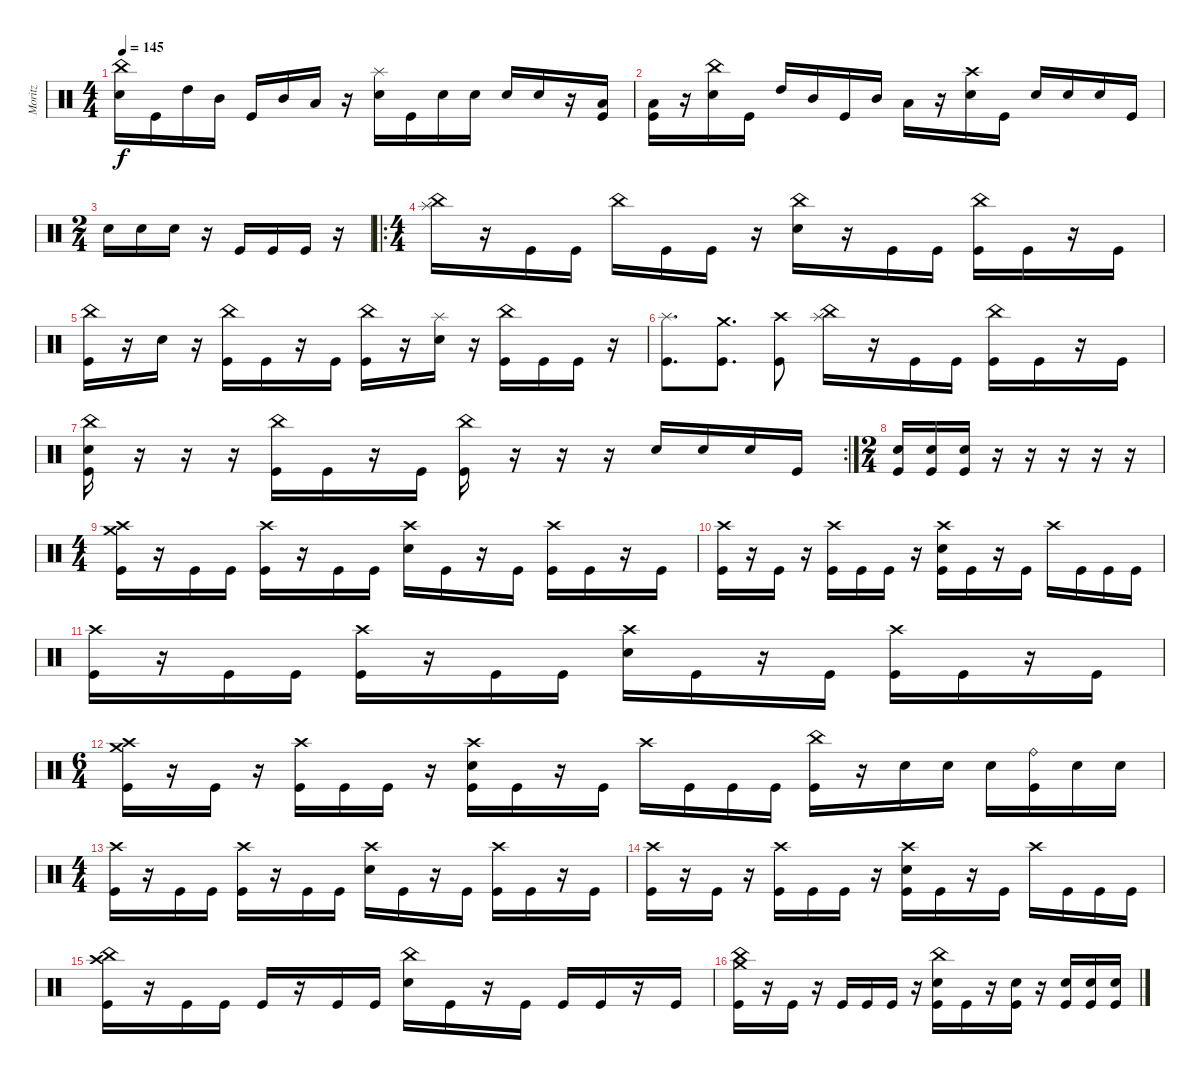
\track ("Moritz" "Moritz") {instrument percussion}
\staff {score}
\articulation defaults
\ts (4 4)
\tempo 145
\clef neutral
\ks c
("China (hit)" "Snare (hit) 2").16{dy f} "Kick (hit)".16 "High Tom (hit)".16 "Mid Tom (hit)".16 "Kick (hit)".16 "Mid Tom (hit)".16 "Low Floor Tom (hit)".16 r.16 ("Splash (hit)" "Snare (hit) 2").16 "Kick (hit)".16 "Snare (hit) 2".16 "Snare (hit) 2".16 "Snare (hit) 2".16 "Snare (hit) 2".16 r.16 ("Low Floor Tom (hit)" "Kick (hit)").16 |
("Low Floor Tom (hit)" "Kick (hit)").16 r.16 ("China (hit)" "Snare (hit) 2").16 "Kick (hit)".16 "High Tom (hit)".16 "Mid Tom (hit)".16 "Kick (hit)".16 "Mid Tom (hit)".16 "Low Floor Tom (hit)".16 r.16 ("Crash high (hit)" "Snare (hit) 2").16 "Kick (hit)".16 "Snare (hit) 2".16 "Snare (hit) 2".16 "Snare (hit) 2".16 "Kick (hit)".16 |
\ts (2 4)
"Snare (hit) 2".16 "Snare (hit) 2".16 "Snare (hit) 2".16 r.16 "Kick (hit)".16 "Kick (hit)".16 "Kick (hit)".16 r.16 |
\ro
\ts (4 4)
("Splash (hit)" "China (hit)").16 r.16 "Kick (hit)".16 "Kick (hit)".16 "China (hit)".16 "Kick (hit)".16 "Kick (hit)".16 r.16 ("China (hit)" "Snare (hit) 2").16 r.16 "Kick (hit)".16 "Kick (hit)".16 ("China (hit)" "Kick (hit)").16 "Kick (hit)".16 r.16 "Kick (hit)".16 |
("China (hit)" "Kick (hit)").16 r.16 "Snare (hit) 2".16 r.16 ("China (hit)" "Kick (hit)").16 "Kick (hit)".16 r.16 "Kick (hit)".16 ("China (hit)" "Kick (hit)").16 r.16 ("Splash (hit)" "Snare (hit) 2").16 r.16 ("China (hit)" "Kick (hit)").16 "Kick (hit)".16 "Kick (hit)".16 r.16 |
("Splash (hit)" "Kick (hit)").8{d} ("Crash medium (hit)" "Kick (hit)").8{d} ("Crash high (hit)" "Kick (hit)").8 ("Splash (hit)" "China (hit)").16 r.16 "Kick (hit)".16 "Kick (hit)".16 ("China (hit)" "Kick (hit)").16 "Kick (hit)".16 r.16 "Kick (hit)".16 |
\rc 2
("China (hit)" "Snare (hit) 2" "Kick (hit)").16 r.16 r.16 r.16 ("China (hit)" "Kick (hit)").16 "Kick (hit)".16 r.16 "Kick (hit)".16 ("China (hit)" "Kick (hit)").16 r.16 r.16 r.16 "Snare (hit) 2".16 "Snare (hit) 2".16 "Snare (hit) 2".16 "Kick (hit)".16 |
\ts (2 4)
("Snare (hit) 2" "Kick (hit)").16 ("Snare (hit) 2" "Kick (hit)").16 ("Snare (hit) 2" "Kick (hit)").16 r.16 r.16 r.16 r.16 r.16 |
\ts (4 4)
("Crash medium (hit)" "Crash high (hit)" "Kick (hit)").16 r.16 "Kick (hit)".16 "Kick (hit)".16 ("Crash high (hit)" "Kick (hit)").16 r.16 "Kick (hit)".16 "Kick (hit)".16 ("Crash high (hit)" "Snare (hit) 2").16 "Kick (hit)".16 r.16 "Kick (hit)".16 ("Crash high (hit)" "Kick (hit)").16 "Kick (hit)".16 r.16 "Kick (hit)".16 |
("Crash high (hit)" "Kick (hit)").16 r.16 "Kick (hit)".16 r.16 ("Crash high (hit)" "Kick (hit)").16 "Kick (hit)".16 "Kick (hit)".16 r.16 ("Crash high (hit)" "Snare (hit) 2" "Kick (hit)").16 "Kick (hit)".16 r.16 "Kick (hit)".16 "Crash high (hit)".16 "Kick (hit)".16 "Kick (hit)".16 "Kick (hit)".16 |
("Crash high (hit)" "Kick (hit)").16 r.16 "Kick (hit)".16 "Kick (hit)".16 ("Crash high (hit)" "Kick (hit)").16 r.16 "Kick (hit)".16 "Kick (hit)".16 ("Crash high (hit)" "Snare (hit) 2").16 "Kick (hit)".16 r.16 "Kick (hit)".16 ("Crash high (hit)" "Kick (hit)").16 "Kick (hit)".16 r.16 "Kick (hit)".16 |
\ts (6 4)
("Crash medium (hit)" "Crash high (hit)" "Kick (hit)").16 r.16 "Kick (hit)".16 r.16 ("Crash high (hit)" "Kick (hit)").16 "Kick (hit)".16 "Kick (hit)".16 r.16 ("Crash high (hit)" "Snare (hit) 2" "Kick (hit)").16 "Kick (hit)".16 r.16 "Kick (hit)".16 "Crash high (hit)".16 "Kick (hit)".16 "Kick (hit)".16 "Kick (hit)".16 ("China (hit)" "Kick (hit)").16 r.16 "Snare (hit) 2".16 "Snare (hit) 2".16 "Snare (hit) 2".16 ("Ride (bell)" "Kick (hit)").16 "Snare (hit) 2".16 "Snare (hit) 2".16 |
\ts (4 4)
("Crash high (hit)" "Kick (hit)").16 r.16 "Kick (hit)".16 "Kick (hit)".16 ("Crash high (hit)" "Kick (hit)").16 r.16 "Kick (hit)".16 "Kick (hit)".16 ("Crash high (hit)" "Snare (hit) 2").16 "Kick (hit)".16 r.16 "Kick (hit)".16 ("Crash high (hit)" "Kick (hit)").16 "Kick (hit)".16 r.16 "Kick (hit)".16 |
("Crash high (hit)" "Kick (hit)").16 r.16 "Kick (hit)".16 r.16 ("Crash high (hit)" "Kick (hit)").16 "Kick (hit)".16 "Kick (hit)".16 r.16 ("Crash high (hit)" "Snare (hit) 2" "Kick (hit)").16 "Kick (hit)".16 r.16 "Kick (hit)".16 "Crash high (hit)".16 "Kick (hit)".16 "Kick (hit)".16 "Kick (hit)".16 |
("China (hit)" "Crash high (hit)" "Kick (hit)").16 r.16 "Kick (hit)".16 "Kick (hit)".16 "Kick (hit)".16 r.16 "Kick (hit)".16 "Kick (hit)".16 ("China (hit)" "Snare (hit) 2").16 "Kick (hit)".16 r.16 "Kick (hit)".16 "Kick (hit)".16 "Kick (hit)".16 r.16 "Kick (hit)".16 |
("Crash medium (hit)" "China (hit)" "Kick (hit)").16 r.16 "Kick (hit)".16 r.16 "Kick (hit)".16 "Kick (hit)".16 "Kick (hit)".16 r.16 ("China (hit)" "Snare (hit) 2" "Kick (hit)").16 "Kick (hit)".16 r.16 ("Snare (hit) 2" "Kick (hit)").16 r.16 ("Snare (hit) 2" "Kick (hit)").16 ("Snare (hit) 2" "Kick (hit)").16 ("Snare (hit) 2" "Kick (hit)").16
